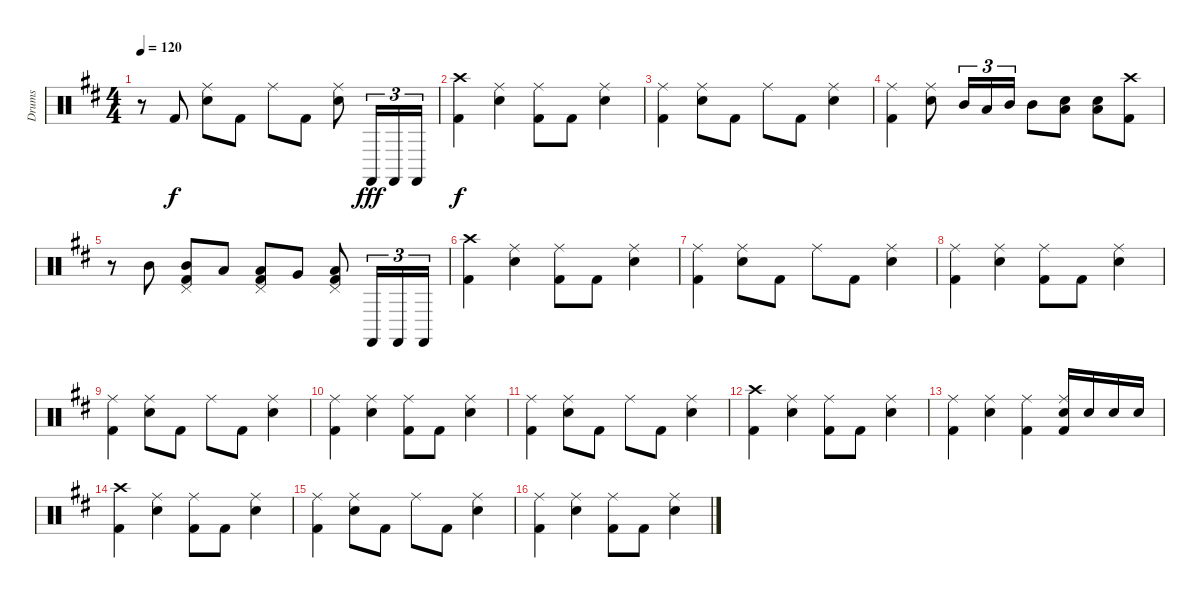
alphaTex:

\track ("Drums" "Drums") {instrument percussion}
\staff {score}
\articulation defaults
\ts (4 4)
\tempo 120
\clef neutral
\ks bminor
r.8{dy f} "Kick (hit) 2".8 ("Ride (middle)" "Electric Snare (hit)").8 "Kick (hit) 2".8 "Ride (middle)".8 "Kick (hit) 2".8 ("Ride (middle)" "Electric Snare (hit)").8 "Castanets (hit)".16{tu (3 2) dy fff} "Castanets (hit)".16{tu (3 2)} "Castanets (hit)".16{tu (3 2)} |
("Crash high (hit)" "Kick (hit) 2").4{dy f} ("Ride (middle)" "Electric Snare (hit)").4 ("Ride (middle)" "Kick (hit) 2").8 "Kick (hit) 2".8 ("Ride (middle)" "Electric Snare (hit)").4 |
("Ride (middle)" "Kick (hit) 2").4 ("Ride (middle)" "Electric Snare (hit)").8 "Kick (hit) 2".8 "Ride (middle)".8 "Kick (hit) 2".8 ("Ride (middle)" "Electric Snare (hit)").4 |
("Ride (middle)" "Kick (hit) 2").4 ("Ride (middle)" "Electric Snare (hit)").8 "Mid Tom (hit)".16{tu (3 2)} "Low Tom (hit)".16{tu (3 2)} "Mid Tom (hit)".16{tu (3 2)} "Mid Tom (hit)".8 ("Low Floor Tom (hit)" "Electric Snare (hit)").8 ("Low Floor Tom (hit)" "Electric Snare (hit)").8 ("Crash high (hit)" "Kick (hit) 2").8 |
r.8 "Mid Tom (hit)".8 ("Pedal Hi-Hat (hit)" "Mid Tom (hit)" "Kick (hit) 2").8 "Low Tom (hit)".8 ("Pedal Hi-Hat (hit)" "Low Tom (hit)" "Kick (hit) 2").8 "Very Low Tom (hit)".8 ("Pedal Hi-Hat (hit)" "Low Floor Tom (hit)" "Kick (hit) 2").8 "Castanets (hit)".16{tu (3 2)} "Castanets (hit)".16{tu (3 2)} "Castanets (hit)".16{tu (3 2)} |
("Crash high (hit)" "Kick (hit) 2").4 ("Ride (middle)" "Electric Snare (hit)").4 ("Ride (middle)" "Kick (hit) 2").8 "Kick (hit) 2".8 ("Ride (middle)" "Electric Snare (hit)").4 |
("Ride (middle)" "Kick (hit) 2").4 ("Ride (middle)" "Electric Snare (hit)").8 "Kick (hit) 2".8 "Ride (middle)".8 "Kick (hit) 2".8 ("Ride (middle)" "Electric Snare (hit)").4 |
("Ride (middle)" "Kick (hit) 2").4 ("Ride (middle)" "Electric Snare (hit)").4 ("Ride (middle)" "Kick (hit) 2").8 "Kick (hit) 2".8 ("Ride (middle)" "Electric Snare (hit)").4 |
("Ride (middle)" "Kick (hit) 2").4 ("Ride (middle)" "Electric Snare (hit)").8 "Kick (hit) 2".8 "Ride (middle)".8 "Kick (hit) 2".8 ("Ride (middle)" "Electric Snare (hit)").4 |
("Ride (middle)" "Kick (hit) 2").4 ("Ride (middle)" "Electric Snare (hit)").4 ("Ride (middle)" "Kick (hit) 2").8 "Kick (hit) 2".8 ("Ride (middle)" "Electric Snare (hit)").4 |
("Ride (middle)" "Kick (hit) 2").4 ("Ride (middle)" "Electric Snare (hit)").8 "Kick (hit) 2".8 "Ride (middle)".8 "Kick (hit) 2".8 ("Ride (middle)" "Electric Snare (hit)").4 |
("Crash high (hit)" "Kick (hit) 2").4 ("Ride (middle)" "Electric Snare (hit)").4 ("Ride (middle)" "Kick (hit) 2").8 "Kick (hit) 2".8 ("Ride (middle)" "Electric Snare (hit)").4 |
("Ride (middle)" "Kick (hit) 2").4 ("Ride (middle)" "Electric Snare (hit)").4 ("Ride (middle)" "Kick (hit) 2").4 ("Ride (middle)" "Electric Snare (hit)" "Kick (hit) 2").16 "Electric Snare (hit)".16 "Electric Snare (hit)".16 "Electric Snare (hit)".16 |
("Crash high (hit)" "Kick (hit) 2").4 ("Ride (middle)" "Electric Snare (hit)").4 ("Ride (middle)" "Kick (hit) 2").8 "Kick (hit) 2".8 ("Ride (middle)" "Electric Snare (hit)").4 |
("Ride (middle)" "Kick (hit) 2").4 ("Ride (middle)" "Electric Snare (hit)").8 "Kick (hit) 2".8 "Ride (middle)".8 "Kick (hit) 2".8 ("Ride (middle)" "Electric Snare (hit)").4 |
("Ride (middle)" "Kick (hit) 2").4 ("Ride (middle)" "Electric Snare (hit)").4 ("Ride (middle)" "Kick (hit) 2").8 "Kick (hit) 2".8 ("Ride (middle)" "Electric Snare (hit)").4
